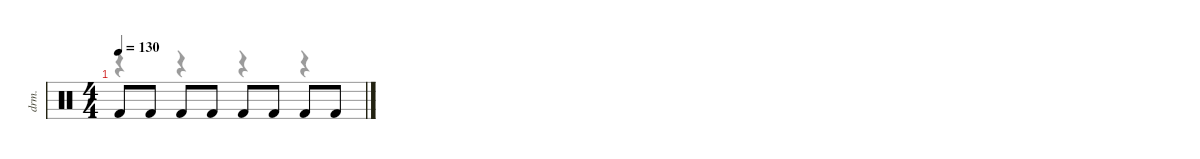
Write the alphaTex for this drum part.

\defaultSystemsLayout 4
\hideDynamics
\bracketExtendMode nobrackets
\track ("Shaker" "drm.") {instrument percussion}
\staff {score}
\articulation defaults
\voice
\ts (4 4)
\tempo 130
\clef neutral
\ks c "Kick (hit) 2".8{dy pp} "Kick (hit) 2".8 "Kick (hit) 2".8 "Kick (hit) 2".8 "Kick (hit) 2".8 "Kick (hit) 2".8 "Kick (hit) 2".8 "Kick (hit) 2".8
\voice
\clef neutral
\ks c
r.4{dy mf} r.4 r.4 r.4
